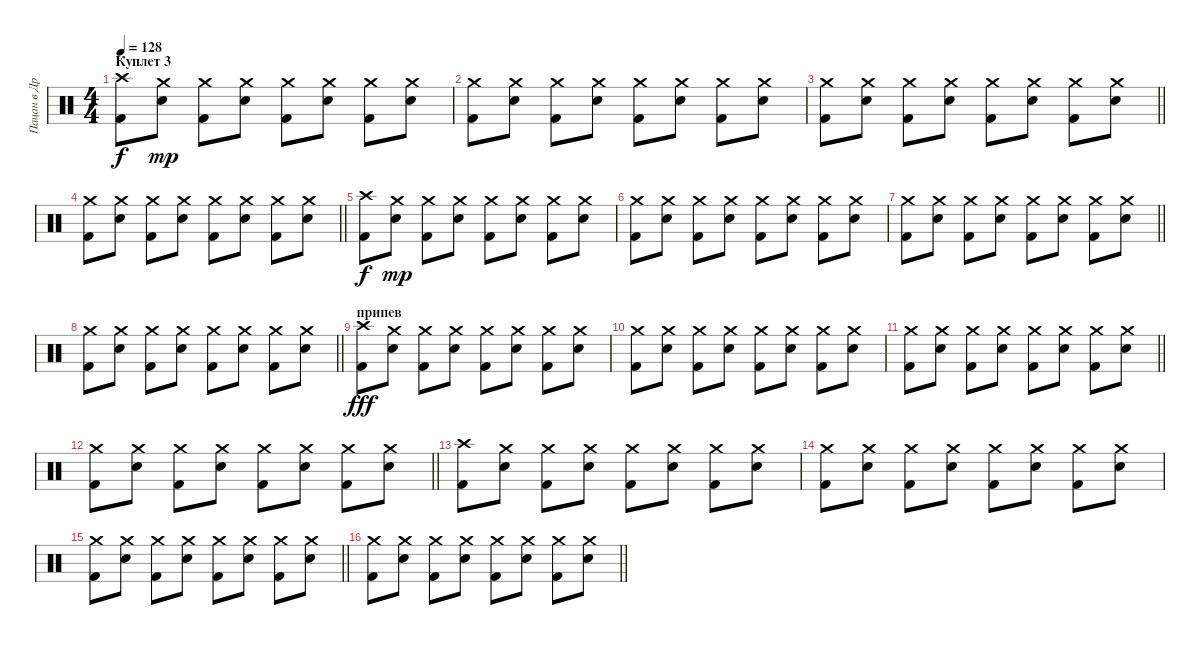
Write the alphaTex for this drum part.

\track ("Пацан в Дредах" "Пацан в Др") {instrument percussion}
\staff {score}
\articulation defaults
\ts (4 4)
\section ("" "Куплет 3")
\tempo 128
\clef neutral
\ks c
("Crash high (hit)" "Kick (hit) 2").8{dy f} ("Crash medium (hit)" "Electric Snare (hit)").8{dy mp} ("Crash medium (hit)" "Kick (hit) 2").8 ("Crash medium (hit)" "Electric Snare (hit)").8 ("Crash medium (hit)" "Kick (hit) 2").8 ("Crash medium (hit)" "Electric Snare (hit)").8 ("Crash medium (hit)" "Kick (hit) 2").8 ("Crash medium (hit)" "Electric Snare (hit)").8 |
("Crash medium (hit)" "Kick (hit) 2").8 ("Crash medium (hit)" "Electric Snare (hit)").8 ("Crash medium (hit)" "Kick (hit) 2").8 ("Crash medium (hit)" "Electric Snare (hit)").8 ("Crash medium (hit)" "Kick (hit) 2").8 ("Crash medium (hit)" "Electric Snare (hit)").8 ("Crash medium (hit)" "Kick (hit) 2").8 ("Crash medium (hit)" "Electric Snare (hit)").8 |
\barLineRight lightlight
("Crash medium (hit)" "Kick (hit) 2").8 ("Crash medium (hit)" "Electric Snare (hit)").8 ("Crash medium (hit)" "Kick (hit) 2").8 ("Crash medium (hit)" "Electric Snare (hit)").8 ("Crash medium (hit)" "Kick (hit) 2").8 ("Crash medium (hit)" "Electric Snare (hit)").8 ("Crash medium (hit)" "Kick (hit) 2").8 ("Crash medium (hit)" "Electric Snare (hit)").8 |
\barLineRight lightlight
("Crash medium (hit)" "Kick (hit) 2").8 ("Crash medium (hit)" "Electric Snare (hit)").8 ("Crash medium (hit)" "Kick (hit) 2").8 ("Crash medium (hit)" "Electric Snare (hit)").8 ("Crash medium (hit)" "Kick (hit) 2").8 ("Crash medium (hit)" "Electric Snare (hit)").8 ("Crash medium (hit)" "Kick (hit) 2").8 ("Crash medium (hit)" "Electric Snare (hit)").8 |
("Crash high (hit)" "Kick (hit) 2").8{dy f} ("Crash medium (hit)" "Electric Snare (hit)").8{dy mp} ("Crash medium (hit)" "Kick (hit) 2").8 ("Crash medium (hit)" "Electric Snare (hit)").8 ("Crash medium (hit)" "Kick (hit) 2").8 ("Crash medium (hit)" "Electric Snare (hit)").8 ("Crash medium (hit)" "Kick (hit) 2").8 ("Crash medium (hit)" "Electric Snare (hit)").8 |
("Crash medium (hit)" "Kick (hit) 2").8 ("Crash medium (hit)" "Electric Snare (hit)").8 ("Crash medium (hit)" "Kick (hit) 2").8 ("Crash medium (hit)" "Electric Snare (hit)").8 ("Crash medium (hit)" "Kick (hit) 2").8 ("Crash medium (hit)" "Electric Snare (hit)").8 ("Crash medium (hit)" "Kick (hit) 2").8 ("Crash medium (hit)" "Electric Snare (hit)").8 |
\barLineRight lightlight
("Crash medium (hit)" "Kick (hit) 2").8 ("Crash medium (hit)" "Electric Snare (hit)").8 ("Crash medium (hit)" "Kick (hit) 2").8 ("Crash medium (hit)" "Electric Snare (hit)").8 ("Crash medium (hit)" "Kick (hit) 2").8 ("Crash medium (hit)" "Electric Snare (hit)").8 ("Crash medium (hit)" "Kick (hit) 2").8 ("Crash medium (hit)" "Electric Snare (hit)").8 |
\barLineRight lightlight
("Crash medium (hit)" "Kick (hit) 2").8 ("Crash medium (hit)" "Electric Snare (hit)").8 ("Crash medium (hit)" "Kick (hit) 2").8 ("Crash medium (hit)" "Electric Snare (hit)").8 ("Crash medium (hit)" "Kick (hit) 2").8 ("Crash medium (hit)" "Electric Snare (hit)").8 ("Crash medium (hit)" "Kick (hit) 2").8 ("Crash medium (hit)" "Electric Snare (hit)").8 |
\section ("" "припев")
("Crash high (hit)" "Kick (hit) 2").8{dy fff} ("Crash medium (hit)" "Electric Snare (hit)").8 ("Crash medium (hit)" "Kick (hit) 2").8 ("Crash medium (hit)" "Electric Snare (hit)").8 ("Crash medium (hit)" "Kick (hit) 2").8 ("Crash medium (hit)" "Electric Snare (hit)").8 ("Crash medium (hit)" "Kick (hit) 2").8 ("Crash medium (hit)" "Electric Snare (hit)").8 |
("Crash medium (hit)" "Kick (hit) 2").8 ("Crash medium (hit)" "Electric Snare (hit)").8 ("Crash medium (hit)" "Kick (hit) 2").8 ("Crash medium (hit)" "Electric Snare (hit)").8 ("Crash medium (hit)" "Kick (hit) 2").8 ("Crash medium (hit)" "Electric Snare (hit)").8 ("Crash medium (hit)" "Kick (hit) 2").8 ("Crash medium (hit)" "Electric Snare (hit)").8 |
\barLineRight lightlight
("Crash medium (hit)" "Kick (hit) 2").8 ("Crash medium (hit)" "Electric Snare (hit)").8 ("Crash medium (hit)" "Kick (hit) 2").8 ("Crash medium (hit)" "Electric Snare (hit)").8 ("Crash medium (hit)" "Kick (hit) 2").8 ("Crash medium (hit)" "Electric Snare (hit)").8 ("Crash medium (hit)" "Kick (hit) 2").8 ("Crash medium (hit)" "Electric Snare (hit)").8 |
\barLineRight lightlight
("Crash medium (hit)" "Kick (hit) 2").8 ("Crash medium (hit)" "Electric Snare (hit)").8 ("Crash medium (hit)" "Kick (hit) 2").8 ("Crash medium (hit)" "Electric Snare (hit)").8 ("Crash medium (hit)" "Kick (hit) 2").8 ("Crash medium (hit)" "Electric Snare (hit)").8 ("Crash medium (hit)" "Kick (hit) 2").8 ("Crash medium (hit)" "Electric Snare (hit)").8 |
("Crash high (hit)" "Kick (hit) 2").8 ("Crash medium (hit)" "Electric Snare (hit)").8 ("Crash medium (hit)" "Kick (hit) 2").8 ("Crash medium (hit)" "Electric Snare (hit)").8 ("Crash medium (hit)" "Kick (hit) 2").8 ("Crash medium (hit)" "Electric Snare (hit)").8 ("Crash medium (hit)" "Kick (hit) 2").8 ("Crash medium (hit)" "Electric Snare (hit)").8 |
("Crash medium (hit)" "Kick (hit) 2").8 ("Crash medium (hit)" "Electric Snare (hit)").8 ("Crash medium (hit)" "Kick (hit) 2").8 ("Crash medium (hit)" "Electric Snare (hit)").8 ("Crash medium (hit)" "Kick (hit) 2").8 ("Crash medium (hit)" "Electric Snare (hit)").8 ("Crash medium (hit)" "Kick (hit) 2").8 ("Crash medium (hit)" "Electric Snare (hit)").8 |
\barLineRight lightlight
("Crash medium (hit)" "Kick (hit) 2").8 ("Crash medium (hit)" "Electric Snare (hit)").8 ("Crash medium (hit)" "Kick (hit) 2").8 ("Crash medium (hit)" "Electric Snare (hit)").8 ("Crash medium (hit)" "Kick (hit) 2").8 ("Crash medium (hit)" "Electric Snare (hit)").8 ("Crash medium (hit)" "Kick (hit) 2").8 ("Crash medium (hit)" "Electric Snare (hit)").8 |
\barLineRight lightlight
("Crash medium (hit)" "Kick (hit) 2").8 ("Crash medium (hit)" "Electric Snare (hit)").8 ("Crash medium (hit)" "Kick (hit) 2").8 ("Crash medium (hit)" "Electric Snare (hit)").8 ("Crash medium (hit)" "Kick (hit) 2").8 ("Crash medium (hit)" "Electric Snare (hit)").8 ("Crash medium (hit)" "Kick (hit) 2").8 ("Crash medium (hit)" "Electric Snare (hit)").8
